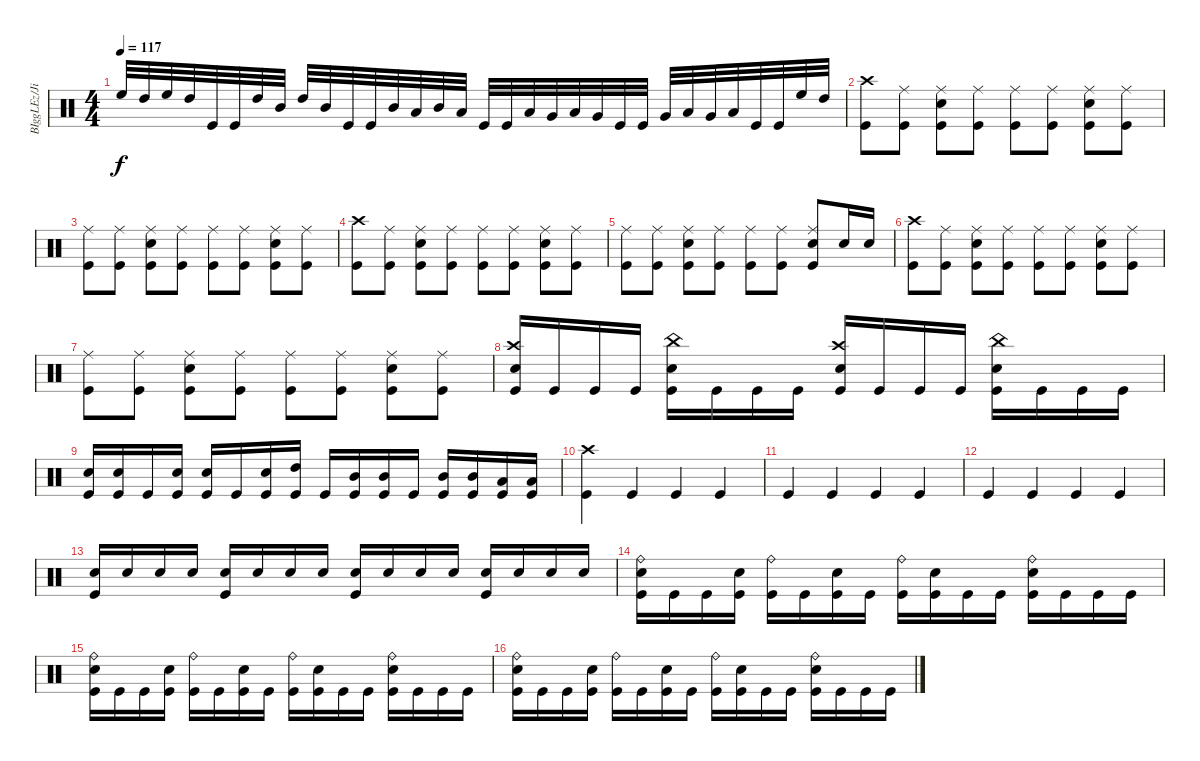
\track ("BIggLEz/Jimmy" "BIggLEz/Ji") {instrument percussion}
\staff {score}
\articulation defaults
\ts (4 4)
\tempo 117
\clef neutral
\ks c "High Floor Tom (hit)".32{dy f} "High Tom (hit)".32 "High Floor Tom (hit)".32 "High Tom (hit)".32 "Kick (hit)".32 "Kick (hit)".32 "High Tom (hit)".32 "Mid Tom (hit)".32 "High Tom (hit)".32 "Mid Tom (hit)".32 "Kick (hit)".32 "Kick (hit)".32 "Mid Tom (hit)".32 "Low Tom (hit)".32 "Mid Tom (hit)".32 "Low Tom (hit)".32 "Kick (hit)".32 "Kick (hit)".32 "Low Tom (hit)".32 "Very Low Tom (hit)".32 "Low Tom (hit)".32 "Very Low Tom (hit)".32 "Kick (hit)".32 "Kick (hit)".32 "Very Low Tom (hit)".32 "Low Floor Tom (hit)".32 "Very Low Tom (hit)".32 "Low Floor Tom (hit)".32 "Kick (hit)".32 "Kick (hit)".32 "High Floor Tom (hit)".32 "High Tom (hit)".32
|
("Kick (hit)" "Crash high (hit)").8 ("Kick (hit)" "Ride (middle)").8 ("Snare (hit) 2" "Ride (middle)" "Kick (hit)").8 ("Kick (hit)" "Ride (middle)").8 ("Kick (hit)" "Ride (middle)").8 ("Kick (hit)" "Ride (middle)").8 ("Kick (hit)" "Ride (middle)" "Snare (hit) 2").8 ("Kick (hit)" "Ride (middle)").8 |
("Kick (hit)" "Ride (middle)").8 ("Kick (hit)" "Ride (middle)").8 ("Kick (hit)" "Ride (middle)" "Snare (hit) 2").8 ("Kick (hit)" "Ride (middle)").8 ("Kick (hit)" "Ride (middle)").8 ("Kick (hit)" "Ride (middle)").8 ("Kick (hit)" "Ride (middle)" "Snare (hit) 2").8 ("Kick (hit)" "Ride (middle)").8 |
("Kick (hit)" "Crash high (hit)").8 ("Kick (hit)" "Ride (middle)").8 ("Snare (hit) 2" "Ride (middle)" "Kick (hit)").8 ("Kick (hit)" "Ride (middle)").8 ("Kick (hit)" "Ride (middle)").8 ("Kick (hit)" "Ride (middle)").8 ("Kick (hit)" "Ride (middle)" "Snare (hit) 2").8 ("Kick (hit)" "Ride (middle)").8 |
("Kick (hit)" "Ride (middle)").8 ("Kick (hit)" "Ride (middle)").8 ("Snare (hit) 2" "Ride (middle)" "Kick (hit)").8 ("Kick (hit)" "Ride (middle)").8 ("Kick (hit)" "Ride (middle)").8 ("Kick (hit)" "Ride (middle)").8 ("Kick (hit)" "Ride (middle)" "Snare (hit) 2").8 "Snare (hit) 2".16 "Snare (hit) 2".16 |
("Kick (hit)" "Crash high (hit)").8 ("Kick (hit)" "Ride (middle)").8 ("Snare (hit) 2" "Ride (middle)" "Kick (hit)").8 ("Kick (hit)" "Ride (middle)").8 ("Kick (hit)" "Ride (middle)").8 ("Kick (hit)" "Ride (middle)").8 ("Kick (hit)" "Ride (middle)" "Snare (hit) 2").8 ("Kick (hit)" "Ride (middle)").8 |
("Kick (hit)" "Ride (middle)").8 ("Kick (hit)" "Ride (middle)").8 ("Snare (hit) 2" "Ride (middle)" "Kick (hit)").8 ("Kick (hit)" "Ride (middle)").8 ("Kick (hit)" "Ride (middle)").8 ("Kick (hit)" "Ride (middle)").8 ("Kick (hit)" "Ride (middle)" "Snare (hit) 2").8 ("Kick (hit)" "Ride (middle)").8 |
("Kick (hit)" "Snare (hit) 2" "Crash high (hit)").16 "Kick (hit)".16 "Kick (hit)".16 "Kick (hit)".16 ("Kick (hit)" "Snare (hit) 2" "China (hit)").16 "Kick (hit)".16 "Kick (hit)".16 "Kick (hit)".16 ("Kick (hit)" "Snare (hit) 2" "Crash high (hit)").16 "Kick (hit)".16 "Kick (hit)".16 "Kick (hit)".16 ("Kick (hit)" "Snare (hit) 2" "China (hit)").16 "Kick (hit)".16 "Kick (hit)".16 "Kick (hit)".16 |
("Kick (hit)" "Snare (hit) 2").16 ("Kick (hit)" "Snare (hit) 2").16 "Kick (hit)".16 ("Kick (hit)" "Snare (hit) 2").16 ("Kick (hit)" "Snare (hit) 2").16 "Kick (hit)".16 ("Kick (hit)" "Snare (hit) 2").16 ("Kick (hit)" "High Tom (hit)").16 "Kick (hit)".16 ("Kick (hit)" "Mid Tom (hit)").16 ("Kick (hit)" "Mid Tom (hit)").16 "Kick (hit)".16 ("Kick (hit)" "Mid Tom (hit)").16 ("Kick (hit)" "Mid Tom (hit)").16 ("Kick (hit)" "Low Tom (hit)").16 ("Kick (hit)" "Low Tom (hit)").16 |
("Kick (hit)" "Crash high (hit)").4 "Kick (hit)".4 "Kick (hit)".4 "Kick (hit)".4 |
"Kick (hit)".4 "Kick (hit)".4 "Kick (hit)".4 "Kick (hit)".4 |
"Kick (hit)".4 "Kick (hit)".4 "Kick (hit)".4 "Kick (hit)".4{volume 6} |
("Kick (hit)" "Snare (hit) 2").16{volume 13} "Snare (hit) 2".16 "Snare (hit) 2".16 "Snare (hit) 2".16 ("Kick (hit)" "Snare (hit) 2").16 "Snare (hit) 2".16 "Snare (hit) 2".16 "Snare (hit) 2".16 ("Kick (hit)" "Snare (hit) 2").16 "Snare (hit) 2".16 "Snare (hit) 2".16 "Snare (hit) 2".16 ("Kick (hit)" "Snare (hit) 2").16 "Snare (hit) 2".16 "Snare (hit) 2".16 "Snare (hit) 2".16 |
("Kick (hit)" "Ride (bell)" "Snare (hit) 2").16 "Kick (hit)".16 "Kick (hit)".16 ("Kick (hit)" "Snare (hit) 2").16 ("Kick (hit)" "Ride (bell)").16 "Kick (hit)".16 ("Kick (hit)" "Snare (hit) 2").16 "Kick (hit)".16 ("Kick (hit)" "Ride (bell)").16 ("Kick (hit)" "Snare (hit) 2").16 "Kick (hit)".16 "Kick (hit)".16 ("Kick (hit)" "Ride (bell)" "Snare (hit) 2").16 "Kick (hit)".16 "Kick (hit)".16 "Kick (hit)".16 |
("Kick (hit)" "Ride (bell)" "Snare (hit) 2").16 "Kick (hit)".16 "Kick (hit)".16 ("Kick (hit)" "Snare (hit) 2").16 ("Kick (hit)" "Ride (bell)").16 "Kick (hit)".16 ("Kick (hit)" "Snare (hit) 2").16 "Kick (hit)".16 ("Kick (hit)" "Ride (bell)").16 ("Kick (hit)" "Snare (hit) 2").16 "Kick (hit)".16 "Kick (hit)".16 ("Kick (hit)" "Ride (bell)" "Snare (hit) 2").16 "Kick (hit)".16 "Kick (hit)".16 "Kick (hit)".16 |
("Kick (hit)" "Ride (bell)" "Snare (hit) 2").16 "Kick (hit)".16 "Kick (hit)".16 ("Kick (hit)" "Snare (hit) 2").16 ("Kick (hit)" "Ride (bell)").16 "Kick (hit)".16 ("Kick (hit)" "Snare (hit) 2").16 "Kick (hit)".16 ("Kick (hit)" "Ride (bell)").16 ("Kick (hit)" "Snare (hit) 2").16 "Kick (hit)".16 "Kick (hit)".16 ("Kick (hit)" "Ride (bell)" "Snare (hit) 2").16 "Kick (hit)".16 "Kick (hit)".16 "Kick (hit)".16
